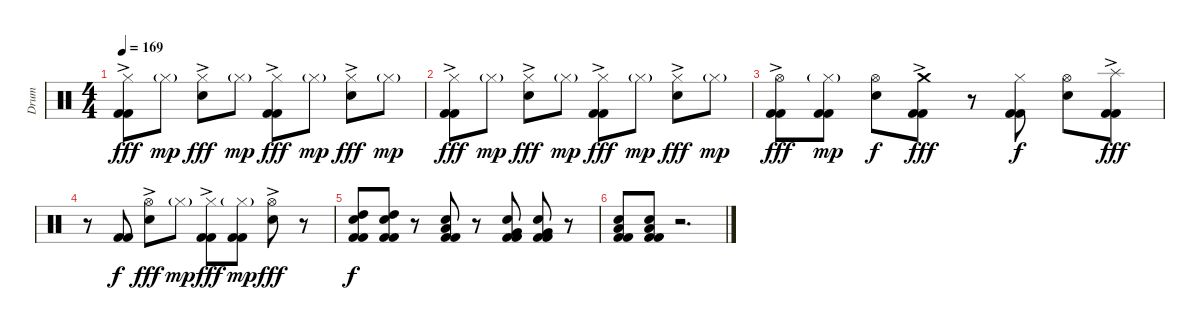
\track ("Drum" "Drum") {instrument percussion}
\staff {score}
\articulation defaults
\ts (4 4)
\tempo 169
\clef neutral
\ks c
("Hi-Hat (closed)"{ac} "Kick (hit) 2" "Kick (hit) 2").8{dy fff} "Hi-Hat (closed)"{g}.8{dy mp} ("Hi-Hat (closed)"{ac} "Electric Snare (hit)").8{dy fff} "Hi-Hat (closed)"{g}.8{dy mp} ("Hi-Hat (closed)"{ac} "Kick (hit) 2" "Kick (hit) 2").8{dy fff} "Hi-Hat (closed)"{g}.8{dy mp} ("Hi-Hat (closed)"{ac} "Electric Snare (hit)").8{dy fff} "Hi-Hat (closed)"{g}.8{dy mp} |
("Hi-Hat (closed)"{ac} "Kick (hit) 2" "Kick (hit) 2").8{dy fff} "Hi-Hat (closed)"{g}.8{dy mp} ("Hi-Hat (closed)"{ac} "Electric Snare (hit)").8{dy fff} "Hi-Hat (closed)"{g}.8{dy mp} ("Hi-Hat (closed)"{ac} "Kick (hit) 2" "Kick (hit) 2").8{dy fff} "Hi-Hat (closed)"{g}.8{dy mp} ("Hi-Hat (closed)"{ac} "Electric Snare (hit)").8{dy fff} "Hi-Hat (closed)"{g}.8{dy mp} |
("Hi-Hat (open)"{ac} "Kick (hit) 2" "Kick (hit) 2").8{dy fff} ("Hi-Hat (closed)"{g} "Kick (hit) 2" "Kick (hit) 2").8{dy mp} ("Hi-Hat (open)" "Electric Snare (hit)").8{dy f} ("Crash medium (hit)"{ac} "Kick (hit) 2" "Kick (hit) 2").8{dy fff} r.8 ("Hi-Hat (closed)" "Kick (hit) 2" "Kick (hit) 2").8{dy f} ("Hi-Hat (open)" "Electric Snare (hit)").8 ("Splash (hit)"{ac} "Kick (hit) 2" "Kick (hit) 2").8{dy fff} |
r.8 ("Kick (hit) 2" "Kick (hit) 2").8{dy f} ("Hi-Hat (open)"{ac} "Electric Snare (hit)").8{dy fff} "Hi-Hat (closed)"{g}.8{dy mp} ("Hi-Hat (closed)"{ac} "Kick (hit) 2" "Kick (hit) 2").8{dy fff} ("Hi-Hat (closed)"{g} "Kick (hit) 2" "Kick (hit) 2").8{dy mp} ("Hi-Hat (open)"{ac} "Electric Snare (hit)").8{dy fff} r.8 |
("High Tom (hit)" "Electric Snare (hit)" "Kick (hit) 2" "Kick (hit) 2").8{dy f} ("High Tom (hit)" "Electric Snare (hit)" "Kick (hit) 2" "Kick (hit) 2").8 r.8 ("Low Tom (hit)" "Electric Snare (hit)" "Kick (hit) 2" "Kick (hit) 2").8 r.8 ("Very Low Tom (hit)" "Electric Snare (hit)" "Kick (hit) 2" "Kick (hit) 2").8 ("Very Low Tom (hit)" "Electric Snare (hit)" "Kick (hit) 2" "Kick (hit) 2").8 r.8 |
("Low Floor Tom (hit)" "Electric Snare (hit)" "Kick (hit) 2" "Kick (hit) 2").8 ("Low Floor Tom (hit)" "Electric Snare (hit)" "Kick (hit) 2" "Kick (hit) 2").8 r.2{d}
